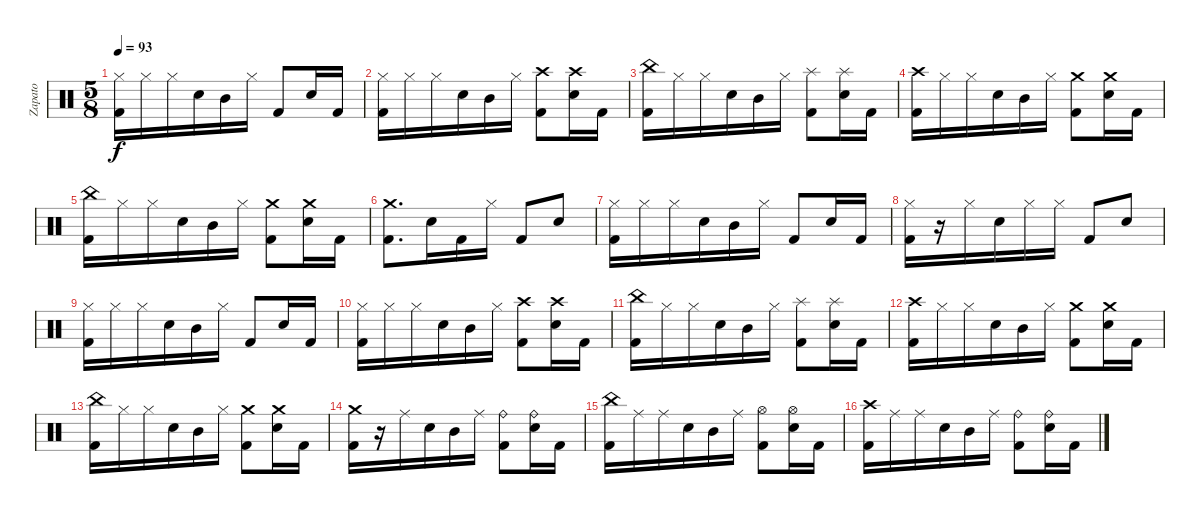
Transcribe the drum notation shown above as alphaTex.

\track ("Zapato" "Zapato") {instrument percussion}
\staff {score}
\articulation defaults
\ts (5 8)
\tempo 93
\clef neutral
\ks c
("Kick (hit) 2" "Hi-Hat (closed)").16{dy f} "Hi-Hat (closed)".16 "Hi-Hat (closed)".16 "Electric Snare (hit)".16 "Mid Tom (hit)".16 "Hi-Hat (closed)".16 "Kick (hit) 2".8 "Electric Snare (hit)".16 "Kick (hit) 2".16 |
("Kick (hit) 2" "Hi-Hat (closed)").16 "Hi-Hat (closed)".16 "Hi-Hat (closed)".16 "Electric Snare (hit)".16 "Mid Tom (hit)".16 "Hi-Hat (closed)".16 ("Kick (hit) 2" "Crash high (hit)").8 ("Electric Snare (hit)" "Crash high (hit)").16 "Kick (hit) 2".16 |
("Kick (hit) 2" "China (hit)").16 "Hi-Hat (closed)".16 "Hi-Hat (closed)".16 "Electric Snare (hit)".16 "Mid Tom (hit)".16 "Hi-Hat (closed)".16 ("Kick (hit) 2" "Splash (hit)").8 ("Electric Snare (hit)" "Splash (hit)").16 "Kick (hit) 2".16 |
("Kick (hit) 2" "Crash high (hit)").16 "Hi-Hat (closed)".16 "Hi-Hat (closed)".16 "Electric Snare (hit)".16 "Mid Tom (hit)".16 "Hi-Hat (closed)".16 ("Kick (hit) 2" "Crash medium (hit)").8 ("Electric Snare (hit)" "Crash medium (hit)").16 "Kick (hit) 2".16 |
("Kick (hit) 2" "China (hit)").16 "Hi-Hat (closed)".16 "Hi-Hat (closed)".16 "Electric Snare (hit)".16 "Mid Tom (hit)".16 "Hi-Hat (closed)".16 ("Kick (hit) 2" "Crash medium (hit)").8 ("Electric Snare (hit)" "Crash medium (hit)").16 "Kick (hit) 2".16 |
("Kick (hit) 2" "Crash medium (hit)").8{d} "Electric Snare (hit)".16 "Kick (hit) 2".16 "Hi-Hat (closed)".16 "Kick (hit) 2".8 "Electric Snare (hit)".8 |
("Kick (hit) 2" "Hi-Hat (closed)").16 "Hi-Hat (closed)".16 "Hi-Hat (closed)".16 "Electric Snare (hit)".16 "Mid Tom (hit)".16 "Hi-Hat (closed)".16 "Kick (hit) 2".8 "Electric Snare (hit)".16 "Kick (hit) 2".16 |
("Kick (hit) 2" "Hi-Hat (closed)").16 r.16 "Hi-Hat (closed)".16 "Electric Snare (hit)".16 "Hi-Hat (closed)".16 "Hi-Hat (closed)".16 "Kick (hit) 2".8 "Electric Snare (hit)".8 |
("Kick (hit) 2" "Hi-Hat (closed)").16 "Hi-Hat (closed)".16 "Hi-Hat (closed)".16 "Electric Snare (hit)".16 "Mid Tom (hit)".16 "Hi-Hat (closed)".16 "Kick (hit) 2".8 "Electric Snare (hit)".16 "Kick (hit) 2".16 |
("Kick (hit) 2" "Hi-Hat (closed)").16 "Hi-Hat (closed)".16 "Hi-Hat (closed)".16 "Electric Snare (hit)".16 "Mid Tom (hit)".16 "Hi-Hat (closed)".16 ("Kick (hit) 2" "Crash high (hit)").8 ("Electric Snare (hit)" "Crash high (hit)").16 "Kick (hit) 2".16 |
("Kick (hit) 2" "China (hit)").16 "Hi-Hat (closed)".16 "Hi-Hat (closed)".16 "Electric Snare (hit)".16 "Mid Tom (hit)".16 "Hi-Hat (closed)".16 ("Kick (hit) 2" "Splash (hit)").8 ("Electric Snare (hit)" "Splash (hit)").16 "Kick (hit) 2".16 |
("Kick (hit) 2" "Crash high (hit)").16 "Hi-Hat (closed)".16 "Hi-Hat (closed)".16 "Electric Snare (hit)".16 "Mid Tom (hit)".16 "Hi-Hat (closed)".16 ("Kick (hit) 2" "Crash medium (hit)").8 ("Electric Snare (hit)" "Crash medium (hit)").16 "Kick (hit) 2".16 |
("Kick (hit) 2" "China (hit)").16 "Hi-Hat (closed)".16 "Hi-Hat (closed)".16 "Electric Snare (hit)".16 "Mid Tom (hit)".16 "Hi-Hat (closed)".16 ("Kick (hit) 2" "Crash medium (hit)").8 ("Electric Snare (hit)" "Crash medium (hit)").16 "Kick (hit) 2".16 |
("Kick (hit) 2" "Crash medium (hit)").16 r.16 "Ride (middle)".16 "Electric Snare (hit)".16 "Mid Tom (hit)".16 "Ride (middle)".16 ("Kick (hit) 2" "Ride (bell)").8 ("Electric Snare (hit)" "Ride (bell)").16 "Kick (hit) 2".16 |
("Kick (hit) 2" "China (hit)").16 "Ride (middle)".16 "Ride (middle)".16 "Electric Snare (hit)".16 "Mid Tom (hit)".16 "Ride (middle)".16 ("Kick (hit) 2" "Hi-Hat (open)").8 ("Electric Snare (hit)" "Hi-Hat (open)").16 "Kick (hit) 2".16 |
("Kick (hit) 2" "Crash high (hit)").16 "Ride (middle)".16 "Ride (middle)".16 "Electric Snare (hit)".16 "Mid Tom (hit)".16 "Ride (middle)".16 ("Kick (hit) 2" "Ride (bell)").8 ("Electric Snare (hit)" "Ride (bell)").16 "Kick (hit) 2".16
